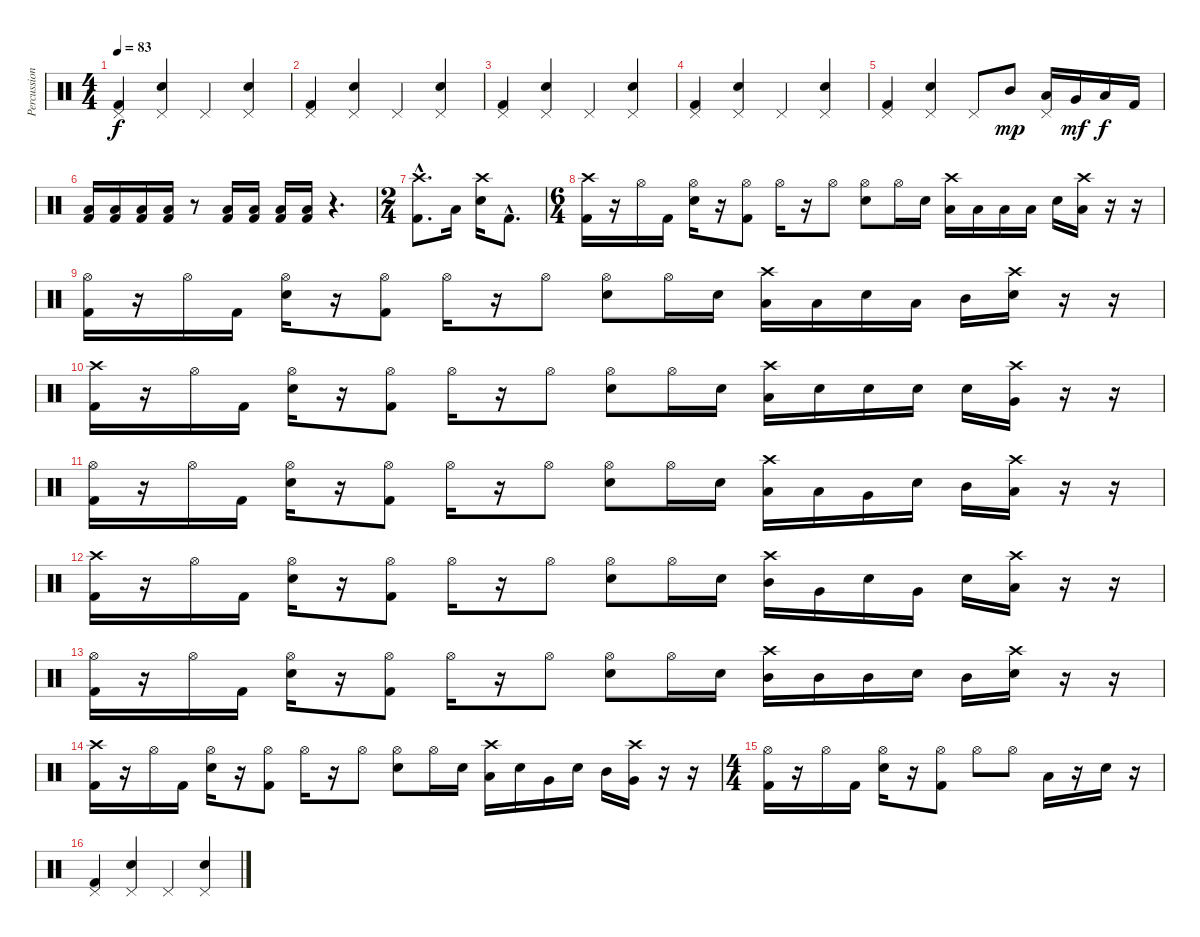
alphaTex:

\track ("Percussion" "Percussion") {instrument percussion}
\staff {score}
\articulation defaults
\ts (4 4)
\tempo 83
\clef neutral
\ks c
("Pedal Hi-Hat (hit)" "Kick (hit) 2").4{dy f} ("Pedal Hi-Hat (hit)" "Electric Snare (hit)").4 "Pedal Hi-Hat (hit)".4 ("Pedal Hi-Hat (hit)" "Electric Snare (hit)").4 |
("Pedal Hi-Hat (hit)" "Kick (hit) 2").4 ("Pedal Hi-Hat (hit)" "Electric Snare (hit)").4 "Pedal Hi-Hat (hit)".4 ("Pedal Hi-Hat (hit)" "Electric Snare (hit)").4 |
("Pedal Hi-Hat (hit)" "Kick (hit) 2").4 ("Pedal Hi-Hat (hit)" "Electric Snare (hit)").4 "Pedal Hi-Hat (hit)".4 ("Pedal Hi-Hat (hit)" "Electric Snare (hit)").4 |
("Pedal Hi-Hat (hit)" "Kick (hit) 2").4 ("Pedal Hi-Hat (hit)" "Electric Snare (hit)").4 "Pedal Hi-Hat (hit)".4 ("Pedal Hi-Hat (hit)" "Electric Snare (hit)").4 |
("Pedal Hi-Hat (hit)" "Kick (hit) 2").4 ("Pedal Hi-Hat (hit)" "Electric Snare (hit)").4 "Pedal Hi-Hat (hit)".8 "Mid Tom (hit)".8{dy mp} ("Pedal Hi-Hat (hit)" "Low Tom (hit)").16 "Very Low Tom (hit)".16{dy mf} "Low Floor Tom (hit)".16{dy f} "Kick (hit) 2".16 |
("Low Floor Tom (hit)" "Kick (hit) 2").16 ("Low Floor Tom (hit)" "Kick (hit) 2").16 ("Low Floor Tom (hit)" "Kick (hit) 2").16 ("Low Floor Tom (hit)" "Kick (hit) 2").16 r.8 ("Low Floor Tom (hit)" "Kick (hit) 2").16 ("Low Floor Tom (hit)" "Kick (hit) 2").16 ("Low Floor Tom (hit)" "Kick (hit) 2").16 ("Low Floor Tom (hit)" "Kick (hit) 2").16 r.4{d} |
\ts (2 4)
("Crash high (hit)"{hac} "Kick (hit) 2"{hac}).8{d} "Low Floor Tom (hit)".16 ("Crash high (hit)" "Electric Snare (hit)").16 "Kick (hit) 2"{hac}.8{d} |
\ts (6 4)
("Crash high (hit)" "Kick (hit) 2").16 r.16 "Hi-Hat (open)".16 "Kick (hit) 2".16 ("Hi-Hat (open)" "Electric Snare (hit)").16 r.16 ("Hi-Hat (open)" "Kick (hit) 2").8 "Hi-Hat (open)".16 r.16 "Hi-Hat (open)".8 ("Hi-Hat (open)" "Electric Snare (hit)").8 "Hi-Hat (open)".16 "Electric Snare (hit)".16 ("Crash high (hit)" "Low Tom (hit)").16 "Low Tom (hit)".16 "Low Tom (hit)".16 "Low Tom (hit)".16 "Electric Snare (hit)".16 ("Crash high (hit)" "Low Floor Tom (hit)").16 r.16 r.16 |
("Hi-Hat (open)" "Kick (hit) 2").16 r.16 "Hi-Hat (open)".16 "Kick (hit) 2".16 ("Hi-Hat (open)" "Electric Snare (hit)").16 r.16 ("Hi-Hat (open)" "Kick (hit) 2").8 "Hi-Hat (open)".16 r.16 "Hi-Hat (open)".8 ("Hi-Hat (open)" "Electric Snare (hit)").8 "Hi-Hat (open)".16 "Electric Snare (hit)".16 ("Crash high (hit)" "Low Tom (hit)").16 "Low Tom (hit)".16 "Electric Snare (hit)".16 "Low Tom (hit)".16 "Mid Tom (hit)".16 ("Crash high (hit)" "Electric Snare (hit)").16 r.16 r.16 |
("Crash high (hit)" "Kick (hit) 2").16 r.16 "Hi-Hat (open)".16 "Kick (hit) 2".16 ("Hi-Hat (open)" "Electric Snare (hit)").16 r.16 ("Hi-Hat (open)" "Kick (hit) 2").8 "Hi-Hat (open)".16 r.16 "Hi-Hat (open)".8 ("Hi-Hat (open)" "Electric Snare (hit)").8 "Hi-Hat (open)".16 "Electric Snare (hit)".16 ("Crash high (hit)" "Low Tom (hit)").16 "Electric Snare (hit)".16 "Electric Snare (hit)".16 "Electric Snare (hit)".16 "Electric Snare (hit)".16 ("Crash high (hit)" "Very Low Tom (hit)").16 r.16 r.16 |
("Hi-Hat (open)" "Kick (hit) 2").16 r.16 "Hi-Hat (open)".16 "Kick (hit) 2".16 ("Hi-Hat (open)" "Electric Snare (hit)").16 r.16 ("Hi-Hat (open)" "Kick (hit) 2").8 "Hi-Hat (open)".16 r.16 "Hi-Hat (open)".8 ("Hi-Hat (open)" "Electric Snare (hit)").8 "Hi-Hat (open)".16 "Electric Snare (hit)".16 ("Crash high (hit)" "Low Tom (hit)").16 "Low Tom (hit)".16 "Very Low Tom (hit)".16 "Electric Snare (hit)".16 "Mid Tom (hit)".16 ("Crash high (hit)" "Low Tom (hit)").16 r.16 r.16 |
("Crash high (hit)" "Kick (hit) 2").16 r.16 "Hi-Hat (open)".16 "Kick (hit) 2".16 ("Hi-Hat (open)" "Electric Snare (hit)").16 r.16 ("Hi-Hat (open)" "Kick (hit) 2").8 "Hi-Hat (open)".16 r.16 "Hi-Hat (open)".8 ("Hi-Hat (open)" "Electric Snare (hit)").8 "Hi-Hat (open)".16 "Electric Snare (hit)".16 ("Crash high (hit)" "Mid Tom (hit)").16 "Very Low Tom (hit)".16 "Electric Snare (hit)".16 "Very Low Tom (hit)".16 "Electric Snare (hit)".16 ("Crash high (hit)" "Low Floor Tom (hit)").16 r.16 r.16 |
("Hi-Hat (open)" "Kick (hit) 2").16 r.16 "Hi-Hat (open)".16 "Kick (hit) 2".16 ("Hi-Hat (open)" "Electric Snare (hit)").16 r.16 ("Hi-Hat (open)" "Kick (hit) 2").8 "Hi-Hat (open)".16 r.16 "Hi-Hat (open)".8 ("Hi-Hat (open)" "Electric Snare (hit)").8 "Hi-Hat (open)".16 "Electric Snare (hit)".16 ("Crash high (hit)" "Mid Tom (hit)").16 "Mid Tom (hit)".16 "Mid Tom (hit)".16 "Electric Snare (hit)".16 "Mid Tom (hit)".16 ("Crash high (hit)" "Electric Snare (hit)").16 r.16 r.16 |
("Crash high (hit)" "Kick (hit) 2").16 r.16 "Hi-Hat (open)".16 "Kick (hit) 2".16 ("Hi-Hat (open)" "Electric Snare (hit)").16 r.16 ("Hi-Hat (open)" "Kick (hit) 2").8 "Hi-Hat (open)".16 r.16 "Hi-Hat (open)".8 ("Hi-Hat (open)" "Electric Snare (hit)").8 "Hi-Hat (open)".16 "Electric Snare (hit)".16 ("Crash high (hit)" "Low Tom (hit)").16 "Electric Snare (hit)".16 "Very Low Tom (hit)".16 "Electric Snare (hit)".16 "Mid Tom (hit)".16 ("Crash high (hit)" "Very Low Tom (hit)").16 r.16 r.16 |
\ts (4 4)
("Hi-Hat (open)" "Kick (hit) 2").16 r.16 "Hi-Hat (open)".16 "Kick (hit) 2".16 ("Hi-Hat (open)" "Electric Snare (hit)").16 r.16 ("Hi-Hat (open)" "Kick (hit) 2").8 "Hi-Hat (open)".8 "Hi-Hat (open)".8 "Low Tom (hit)".16 r.16 "Electric Snare (hit)".16 r.16 |
("Pedal Hi-Hat (hit)" "Kick (hit) 2").4 ("Pedal Hi-Hat (hit)" "Electric Snare (hit)").4 "Pedal Hi-Hat (hit)".4 ("Pedal Hi-Hat (hit)" "Electric Snare (hit)").4
